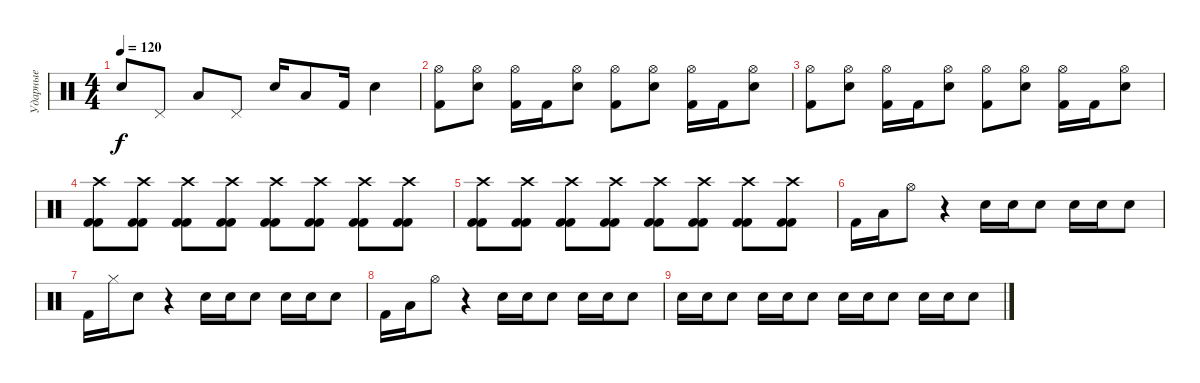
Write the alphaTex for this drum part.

\track ("Ударные" "Ударные") {instrument percussion}
\staff {score}
\articulation defaults
\ts (4 4)
\tempo 120
\clef neutral
\ks c "Snare (hit) 2".8{dy f} "Pedal Hi-Hat (hit)".8 "Low Tom (hit)".8 "Pedal Hi-Hat (hit)".8 "Snare (hit) 2".16 "Low Tom (hit)".8 "Kick (hit) 2".16 "Snare (hit) 2".4
|
("Hi-Hat (open)" "Kick (hit) 2").8 ("Hi-Hat (open)" "Snare (hit) 2").8 ("Hi-Hat (open)" "Kick (hit) 2").16 "Kick (hit) 2".16 ("Hi-Hat (open)" "Snare (hit) 2").8 ("Hi-Hat (open)" "Kick (hit) 2").8 ("Hi-Hat (open)" "Snare (hit) 2").8 ("Hi-Hat (open)" "Kick (hit) 2").16 "Kick (hit) 2".16 ("Hi-Hat (open)" "Snare (hit) 2").8 |
("Hi-Hat (open)" "Kick (hit) 2").8 ("Hi-Hat (open)" "Snare (hit) 2").8 ("Hi-Hat (open)" "Kick (hit) 2").16 "Kick (hit) 2".16 ("Hi-Hat (open)" "Snare (hit) 2").8 ("Hi-Hat (open)" "Kick (hit) 2").8 ("Hi-Hat (open)" "Snare (hit) 2").8 ("Hi-Hat (open)" "Kick (hit) 2").16 "Kick (hit) 2".16 ("Hi-Hat (open)" "Snare (hit) 2").8 |
("Crash high (hit)" "Kick (hit) 2" "Kick (hit) 2").8 ("Crash high (hit)" "Kick (hit) 2" "Kick (hit) 2").8 ("Crash high (hit)" "Kick (hit) 2" "Kick (hit) 2").8 ("Crash high (hit)" "Kick (hit) 2" "Kick (hit) 2").8 ("Crash high (hit)" "Kick (hit) 2" "Kick (hit) 2").8 ("Crash high (hit)" "Kick (hit) 2" "Kick (hit) 2").8 ("Crash high (hit)" "Kick (hit) 2" "Kick (hit) 2").8 ("Crash high (hit)" "Kick (hit) 2" "Kick (hit) 2").8 |
("Crash high (hit)" "Kick (hit) 2" "Kick (hit) 2").8 ("Crash high (hit)" "Kick (hit) 2" "Kick (hit) 2").8 ("Crash high (hit)" "Kick (hit) 2" "Kick (hit) 2").8 ("Crash high (hit)" "Kick (hit) 2" "Kick (hit) 2").8 ("Crash high (hit)" "Kick (hit) 2" "Kick (hit) 2").8 ("Crash high (hit)" "Kick (hit) 2" "Kick (hit) 2").8 ("Crash high (hit)" "Kick (hit) 2" "Kick (hit) 2").8 ("Crash high (hit)" "Kick (hit) 2" "Kick (hit) 2").8 |
"Kick (hit) 2".16 "Low Tom (hit)".16 "Hi-Hat (open)".8 r.4 "Snare (hit) 2".16 "Snare (hit) 2".16 "Snare (hit) 2".8 "Snare (hit) 2".16 "Snare (hit) 2".16 "Snare (hit) 2".8 |
"Kick (hit) 2".16 "Hi-Hat (closed)".16 "Snare (hit) 2".8 r.4 "Snare (hit) 2".16 "Snare (hit) 2".16 "Snare (hit) 2".8 "Snare (hit) 2".16 "Snare (hit) 2".16 "Snare (hit) 2".8 |
"Kick (hit) 2".16 "Low Tom (hit)".16 "Hi-Hat (open)".8 r.4 "Snare (hit) 2".16 "Snare (hit) 2".16 "Snare (hit) 2".8 "Snare (hit) 2".16 "Snare (hit) 2".16 "Snare (hit) 2".8 |
"Snare (hit) 2".16 "Snare (hit) 2".16 "Snare (hit) 2".8 "Snare (hit) 2".16 "Snare (hit) 2".16 "Snare (hit) 2".8 "Snare (hit) 2".16 "Snare (hit) 2".16 "Snare (hit) 2".8 "Snare (hit) 2".16 "Snare (hit) 2".16 "Snare (hit) 2".8
